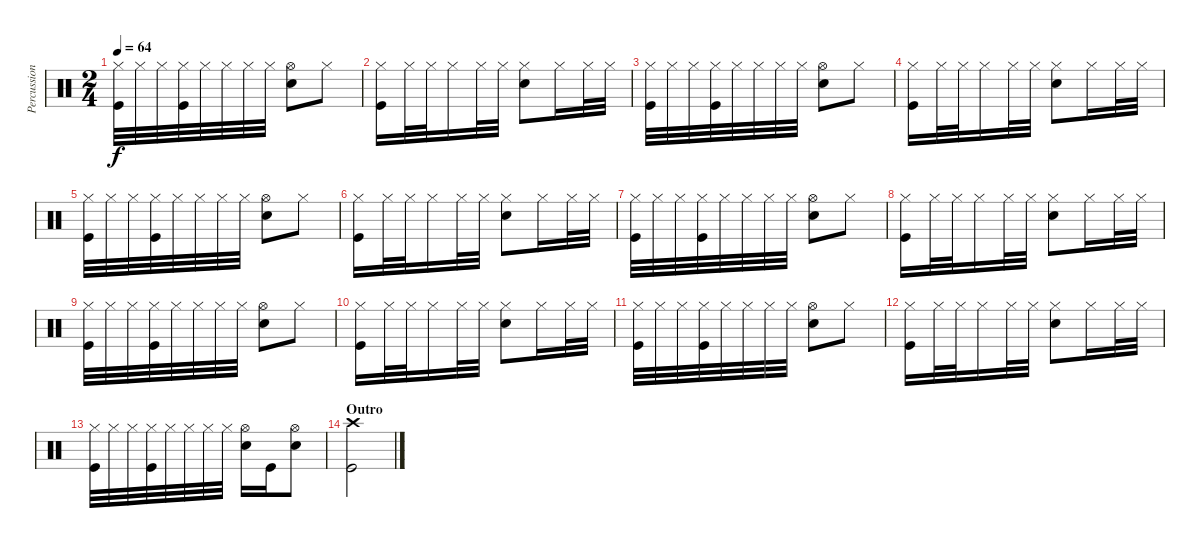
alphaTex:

\track ("Percussion" "Percussion") {instrument percussion}
\staff {score}
\articulation defaults
\ts (2 4)
\tempo 64
\clef neutral
\ks c
("Hi-Hat (closed)" "Kick (hit)").32{dy f} "Hi-Hat (closed)".32 "Hi-Hat (closed)".32 ("Hi-Hat (closed)" "Kick (hit)").32 "Hi-Hat (closed)".32 "Hi-Hat (closed)".32 "Hi-Hat (closed)".32 "Hi-Hat (closed)".32 ("Hi-Hat (open)" "Electric Snare (hit)").8 "Hi-Hat (closed)".8 |
("Hi-Hat (closed)" "Kick (hit)").16 "Hi-Hat (closed)".32 "Hi-Hat (closed)".32 "Hi-Hat (closed)".16 "Hi-Hat (closed)".32 "Hi-Hat (closed)".32 ("Hi-Hat (closed)" "Electric Snare (hit)").8 "Hi-Hat (closed)".16 "Hi-Hat (closed)".32 "Hi-Hat (closed)".32 |
("Hi-Hat (closed)" "Kick (hit)").32 "Hi-Hat (closed)".32 "Hi-Hat (closed)".32 ("Hi-Hat (closed)" "Kick (hit)").32 "Hi-Hat (closed)".32 "Hi-Hat (closed)".32 "Hi-Hat (closed)".32 "Hi-Hat (closed)".32 ("Hi-Hat (open)" "Electric Snare (hit)").8 "Hi-Hat (closed)".8 |
("Hi-Hat (closed)" "Kick (hit)").16 "Hi-Hat (closed)".32 "Hi-Hat (closed)".32 "Hi-Hat (closed)".16 "Hi-Hat (closed)".32 "Hi-Hat (closed)".32 ("Hi-Hat (closed)" "Electric Snare (hit)").8 "Hi-Hat (closed)".16 "Hi-Hat (closed)".32 "Hi-Hat (closed)".32 |
("Hi-Hat (closed)" "Kick (hit)").32 "Hi-Hat (closed)".32 "Hi-Hat (closed)".32 ("Hi-Hat (closed)" "Kick (hit)").32 "Hi-Hat (closed)".32 "Hi-Hat (closed)".32 "Hi-Hat (closed)".32 "Hi-Hat (closed)".32 ("Hi-Hat (open)" "Electric Snare (hit)").8 "Hi-Hat (closed)".8 |
("Hi-Hat (closed)" "Kick (hit)").16 "Hi-Hat (closed)".32 "Hi-Hat (closed)".32 "Hi-Hat (closed)".16 "Hi-Hat (closed)".32 "Hi-Hat (closed)".32 ("Hi-Hat (closed)" "Electric Snare (hit)").8 "Hi-Hat (closed)".16 "Hi-Hat (closed)".32 "Hi-Hat (closed)".32 |
("Hi-Hat (closed)" "Kick (hit)").32 "Hi-Hat (closed)".32 "Hi-Hat (closed)".32 ("Hi-Hat (closed)" "Kick (hit)").32 "Hi-Hat (closed)".32 "Hi-Hat (closed)".32 "Hi-Hat (closed)".32 "Hi-Hat (closed)".32 ("Hi-Hat (open)" "Electric Snare (hit)").8 "Hi-Hat (closed)".8 |
("Hi-Hat (closed)" "Kick (hit)").16 "Hi-Hat (closed)".32 "Hi-Hat (closed)".32 "Hi-Hat (closed)".16 "Hi-Hat (closed)".32 "Hi-Hat (closed)".32 ("Hi-Hat (closed)" "Electric Snare (hit)").8 "Hi-Hat (closed)".16 "Hi-Hat (closed)".32 "Hi-Hat (closed)".32 |
("Hi-Hat (closed)" "Kick (hit)").32 "Hi-Hat (closed)".32 "Hi-Hat (closed)".32 ("Hi-Hat (closed)" "Kick (hit)").32 "Hi-Hat (closed)".32 "Hi-Hat (closed)".32 "Hi-Hat (closed)".32 "Hi-Hat (closed)".32 ("Hi-Hat (open)" "Electric Snare (hit)").8 "Hi-Hat (closed)".8 |
("Hi-Hat (closed)" "Kick (hit)").16 "Hi-Hat (closed)".32 "Hi-Hat (closed)".32 "Hi-Hat (closed)".16 "Hi-Hat (closed)".32 "Hi-Hat (closed)".32 ("Hi-Hat (closed)" "Electric Snare (hit)").8 "Hi-Hat (closed)".16 "Hi-Hat (closed)".32 "Hi-Hat (closed)".32 |
("Hi-Hat (closed)" "Kick (hit)").32 "Hi-Hat (closed)".32 "Hi-Hat (closed)".32 ("Hi-Hat (closed)" "Kick (hit)").32 "Hi-Hat (closed)".32 "Hi-Hat (closed)".32 "Hi-Hat (closed)".32 "Hi-Hat (closed)".32 ("Hi-Hat (open)" "Electric Snare (hit)").8 "Hi-Hat (closed)".8 |
("Hi-Hat (closed)" "Kick (hit)").16 "Hi-Hat (closed)".32 "Hi-Hat (closed)".32 "Hi-Hat (closed)".16 "Hi-Hat (closed)".32 "Hi-Hat (closed)".32 ("Hi-Hat (closed)" "Electric Snare (hit)").8 "Hi-Hat (closed)".16 "Hi-Hat (closed)".32 "Hi-Hat (closed)".32 |
("Hi-Hat (closed)" "Kick (hit)").32 "Hi-Hat (closed)".32 "Hi-Hat (closed)".32 ("Hi-Hat (closed)" "Kick (hit)").32 "Hi-Hat (closed)".32 "Hi-Hat (closed)".32 "Hi-Hat (closed)".32 "Hi-Hat (closed)".32 ("Hi-Hat (open)" "Electric Snare (hit)").16 "Kick (hit)".16 ("Hi-Hat (open)" "Electric Snare (hit)").8 |
\section ("" "Outro")
("Crash high (hit)" "Kick (hit)").2
